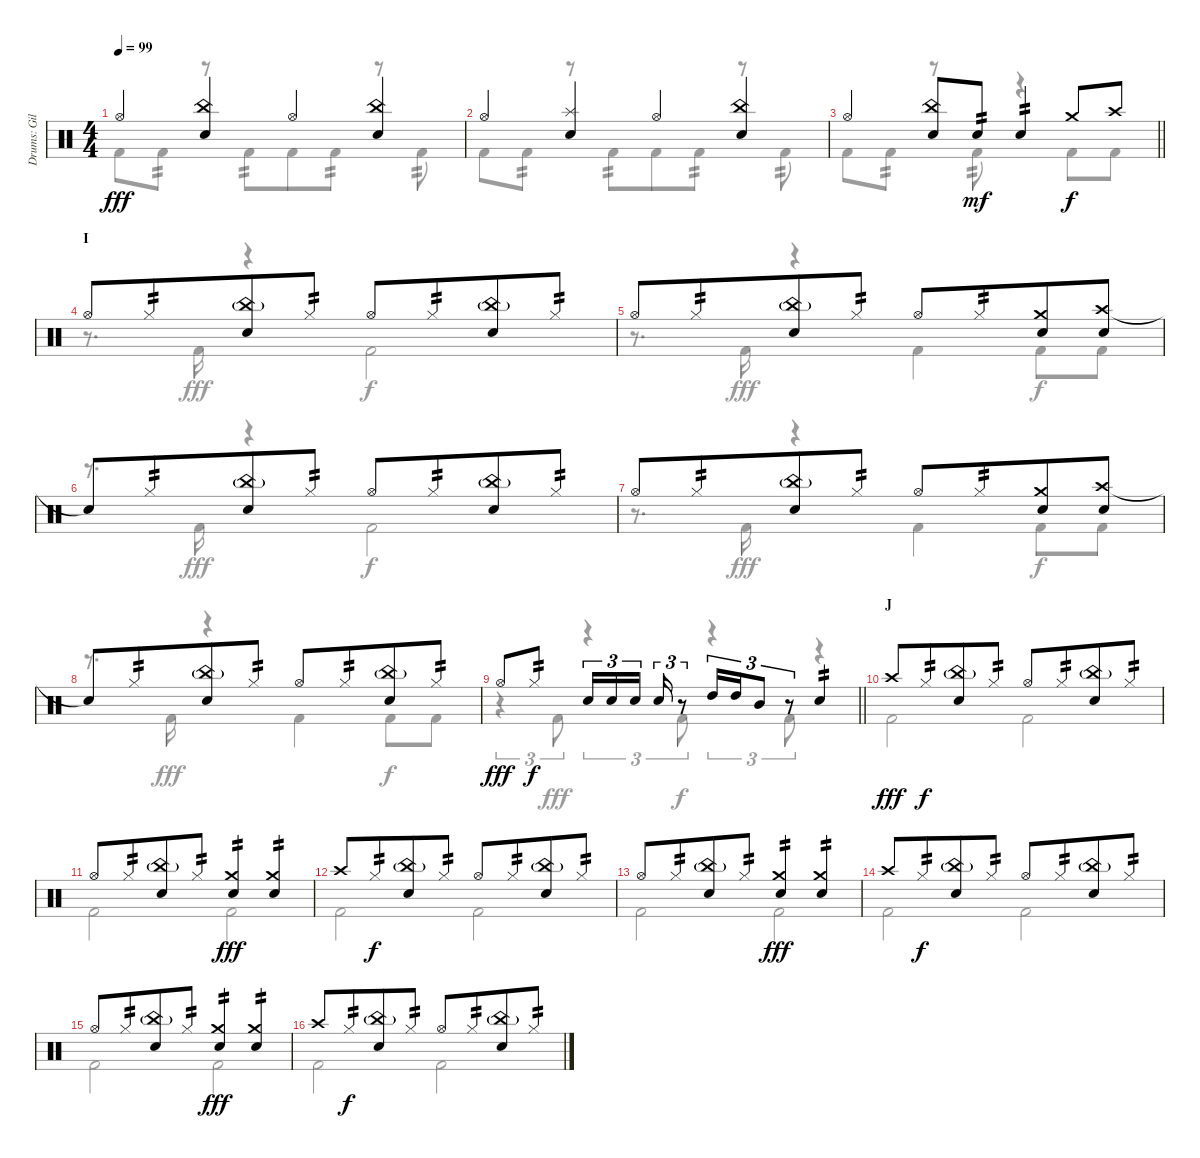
\track ("Drums: Gil" "Drums: Gil") {instrument percussion}
\staff {score}
\articulation defaults
\voice
\ts (4 4)
\tempo 99
\clef neutral
\ks c "Hi-Hat (open)".4{dy fff}
("China (hit)" "Snare (hit) 2").4 "Hi-Hat (open)".4 ("China (hit)" "Snare (hit) 2").4 |
"Hi-Hat (open)".4 ("Splash (hit)" "Snare (hit) 2").4 "Hi-Hat (open)".4 ("China (hit)" "Snare (hit) 2").4 |
\barLineRight lightlight "Hi-Hat (open)".4
("China (hit)" "Snare (hit) 2").8 "Snare (hit) 2".8{tp 2 dy mf beam merge} "Snare (hit) 2".4{tp 2} "Crash medium (hit)".8{dy f} "Crash high (hit)".8 |
\section ("" "I")
"Hi-Hat (open)".8 "Hi-Hat (closed)".8{tp 2 beam merge} ("China (hit)"{g} "Snare (hit) 2").8 "Hi-Hat (closed)".8{tp 2} "Hi-Hat (open)".8 "Hi-Hat (closed)".8{tp 2 beam merge} ("China (hit)"{g} "Snare (hit) 2").8 "Hi-Hat (closed)".8{tp 2} |
"Hi-Hat (open)".8 "Hi-Hat (closed)".8{tp 2 beam merge} ("China (hit)"{g} "Snare (hit) 2").8 "Hi-Hat (closed)".8{tp 2} "Hi-Hat (open)".8 "Hi-Hat (closed)".8{tp 2 beam merge} ("Crash medium (hit)" "Snare (hit) 2").8 ("Crash high (hit)" "Snare (hit) 2").8 |
"Snare (hit)"{t}.8 "Hi-Hat (closed)".8{tp 2 beam merge} ("China (hit)"{g} "Snare (hit) 2").8 "Hi-Hat (closed)".8{tp 2} "Hi-Hat (open)".8 "Hi-Hat (closed)".8{tp 2 beam merge} ("China (hit)"{g} "Snare (hit) 2").8 "Hi-Hat (closed)".8{tp 2} |
"Hi-Hat (open)".8 "Hi-Hat (closed)".8{tp 2 beam merge} ("China (hit)"{g} "Snare (hit) 2").8 "Hi-Hat (closed)".8{tp 2} "Hi-Hat (open)".8 "Hi-Hat (closed)".8{tp 2 beam merge} ("Crash medium (hit)" "Snare (hit) 2").8 ("Crash high (hit)" "Snare (hit) 2").8 |
"Snare (hit)"{t}.8 "Hi-Hat (closed)".8{tp 2 beam merge} ("China (hit)"{g} "Snare (hit) 2").8 "Hi-Hat (closed)".8{tp 2} "Hi-Hat (open)".8 "Hi-Hat (closed)".8{tp 2 beam merge} ("China (hit)"{g} "Snare (hit) 2").8 "Hi-Hat (closed)".8{tp 2} |
\barLineRight lightlight "Hi-Hat (open)".8{dy fff} "Hi-Hat (closed)".8{tp 2 dy f} "Electric Snare (hit)".16{tu (3 2)} "Electric Snare (hit)".16{tu (3 2)} "Electric Snare (hit)".16{tu (3 2) beam splitsecondary} "Electric Snare (hit)".16{tu (3 2)}
r.8{tu (3 2)} "High Tom (hit)".16{tu (3 2)} "High Tom (hit)".16{tu (3 2)} "Mid Tom (hit)".8{tu (3 2)} r.8{tu (3 2)} "Electric Snare (hit)".4{tp 2} |
\section ("" "J")
"Crash high (hit)".8{dy fff} "Hi-Hat (closed)".8{tp 2 dy f beam merge} ("China (hit)"{g} "Snare (hit) 2").8 "Hi-Hat (closed)".8{tp 2} "Hi-Hat (open)".8 "Hi-Hat (closed)".8{tp 2 beam merge} ("China (hit)"{g} "Snare (hit) 2").8 "Hi-Hat (closed)".8{tp 2} |
"Hi-Hat (open)".8 "Hi-Hat (closed)".8{tp 2 beam merge} ("China (hit)"{g} "Snare (hit) 2").8 "Hi-Hat (closed)".8{tp 2} ("Crash medium (hit)" "Snare (hit) 2").4{tp 2 dy fff} ("Crash medium (hit)" "Snare (hit) 2").4{tp 2} |
"Crash high (hit)".8 "Hi-Hat (closed)".8{tp 2 dy f beam merge} ("China (hit)"{g} "Snare (hit) 2").8 "Hi-Hat (closed)".8{tp 2} "Hi-Hat (open)".8 "Hi-Hat (closed)".8{tp 2 beam merge} ("China (hit)"{g} "Snare (hit) 2").8 "Hi-Hat (closed)".8{tp 2} |
"Hi-Hat (open)".8 "Hi-Hat (closed)".8{tp 2 beam merge} ("China (hit)"{g} "Snare (hit) 2").8 "Hi-Hat (closed)".8{tp 2} ("Crash medium (hit)" "Snare (hit) 2").4{tp 2 dy fff} ("Crash medium (hit)" "Snare (hit) 2").4{tp 2} |
"Crash high (hit)".8 "Hi-Hat (closed)".8{tp 2 dy f beam merge} ("China (hit)"{g} "Snare (hit) 2").8 "Hi-Hat (closed)".8{tp 2} "Hi-Hat (open)".8 "Hi-Hat (closed)".8{tp 2 beam merge} ("China (hit)"{g} "Snare (hit) 2").8 "Hi-Hat (closed)".8{tp 2} |
"Hi-Hat (open)".8 "Hi-Hat (closed)".8{tp 2 beam merge} ("China (hit)"{g} "Snare (hit) 2").8 "Hi-Hat (closed)".8{tp 2} ("Crash medium (hit)" "Snare (hit) 2").4{tp 2 dy fff} ("Crash medium (hit)" "Snare (hit) 2").4{tp 2} |
"Crash high (hit)".8 "Hi-Hat (closed)".8{tp 2 dy f beam merge} ("China (hit)"{g} "Snare (hit) 2").8 "Hi-Hat (closed)".8{tp 2} "Hi-Hat (open)".8 "Hi-Hat (closed)".8{tp 2 beam merge} ("China (hit)"{g} "Snare (hit) 2").8 "Hi-Hat (closed)".8{tp 2}
\voice
\clef neutral
\ottava regular
\simile none
\ks c "Kick (hit) 2".8{dy fff} "Kick (hit) 2".8{tp 2}
r.8 "Kick (hit) 2".8{tp 2 beam merge} "Kick (hit) 2".8 "Kick (hit) 2".8{tp 2} r.8 "Kick (hit) 2".8{tp 2} |
"Kick (hit) 2".8 "Kick (hit) 2".8{tp 2} r.8 "Kick (hit) 2".8{tp 2 beam merge} "Kick (hit) 2".8 "Kick (hit) 2".8{tp 2} r.8 "Kick (hit) 2".8{tp 2} |
\barLineRight lightlight "Kick (hit) 2".8 "Kick (hit) 2".8{tp 2}
r.8 "Kick (hit) 2".8{tp 2} r.4 "Kick (hit) 2".8{dy f} "Kick (hit) 2".8 |
r.8{d} "Kick (hit) 2".16{dy fff} r.4 "Kick (hit) 2".2{dy f} |
r.8{d} "Kick (hit) 2".16{dy fff} r.4 "Kick (hit) 2".4 "Kick (hit) 2".8{dy f} "Kick (hit) 2".8 |
r.8{d} "Kick (hit) 2".16{dy fff} r.4 "Kick (hit) 2".2{dy f} |
r.8{d} "Kick (hit) 2".16{dy fff} r.4 "Kick (hit) 2".4 "Kick (hit) 2".8{dy f} "Kick (hit) 2".8 |
r.8{d} "Kick (hit) 2".16{dy fff} r.4 "Kick (hit) 2".4 "Kick (hit) 2".8{dy f} "Kick (hit) 2".8 |
\barLineRight lightlight
r.4{tu (3 2)} "Kick (hit) 2".8{tu (3 2) dy fff} r.4{tu (3 2)} "Kick (hit) 2".8{tu (3 2) dy f} r.4{tu (3 2)} "Kick (hit) 2".8{tu (3 2)} r.4 |
"Kick (hit) 2".2{dy fff} "Kick (hit) 2".2 |
"Kick (hit) 2".2 "Kick (hit) 2".2 |
"Kick (hit) 2".2 "Kick (hit) 2".2 |
"Kick (hit) 2".2 "Kick (hit) 2".2 |
"Kick (hit) 2".2 "Kick (hit) 2".2 |
"Kick (hit) 2".2 "Kick (hit) 2".2 |
"Kick (hit) 2".2 "Kick (hit) 2".2
